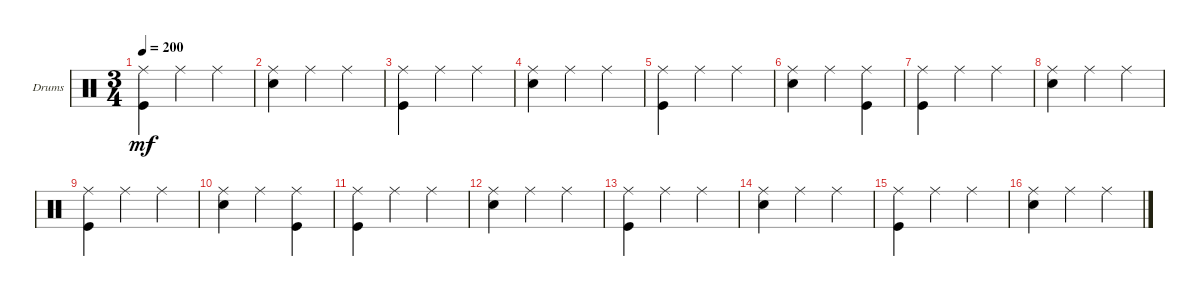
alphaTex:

\bracketExtendMode groupsimilarinstruments
\firstSystemTrackNameOrientation horizontal
\otherSystemsTrackNameOrientation horizontal
\track ("Drumkit" "Drums") {instrument percussion}
\staff {score}
\articulation defaults
\ts (3 4)
\tempo 200
\clef neutral
\scale
0.333333
\ks c
("Kick (hit)" "Ride (middle)").4{dy mf} "Ride (middle)".4 "Ride (middle)".4 |
\scale
0.333333 ("Snare (hit) 2" "Ride (middle)").4 "Ride (middle)".4 "Ride (middle)".4 |
\scale
0.333333 ("Kick (hit)" "Ride (middle)").4 "Ride (middle)".4 "Ride (middle)".4 |
\scale
0.333333 ("Snare (hit) 2" "Ride (middle)").4 "Ride (middle)".4 "Ride (middle)".4 |
\scale
0.333333 ("Kick (hit)" "Ride (middle)").4 "Ride (middle)".4 "Ride (middle)".4 |
\scale
0.333333 ("Snare (hit) 2" "Ride (middle)").4 "Ride (middle)".4 ("Ride (middle)" "Kick (hit)").4 |
\scale
0.333333 ("Kick (hit)" "Ride (middle)").4 "Ride (middle)".4 "Ride (middle)".4 |
\scale
0.333333 ("Snare (hit) 2" "Ride (middle)").4 "Ride (middle)".4 "Ride (middle)".4 |
\scale
0.333333 ("Kick (hit)" "Ride (middle)").4 "Ride (middle)".4 "Ride (middle)".4 |
\scale
0.333333 ("Snare (hit) 2" "Ride (middle)").4 "Ride (middle)".4 ("Ride (middle)" "Kick (hit)").4 |
\scale
0.333333 ("Kick (hit)" "Ride (middle)").4 "Ride (middle)".4 "Ride (middle)".4 |
\scale
0.333333 ("Snare (hit) 2" "Ride (middle)").4 "Ride (middle)".4 "Ride (middle)".4 |
\scale
0.333333 ("Kick (hit)" "Ride (middle)").4 "Ride (middle)".4 "Ride (middle)".4 |
\scale
0.333333 ("Snare (hit) 2" "Ride (middle)").4 "Ride (middle)".4 "Ride (middle)".4 |
\scale
0.333333 ("Kick (hit)" "Ride (middle)").4 "Ride (middle)".4 "Ride (middle)".4 |
\scale
0.333333 ("Snare (hit) 2" "Ride (middle)").4 "Ride (middle)".4 "Ride (middle)".4
